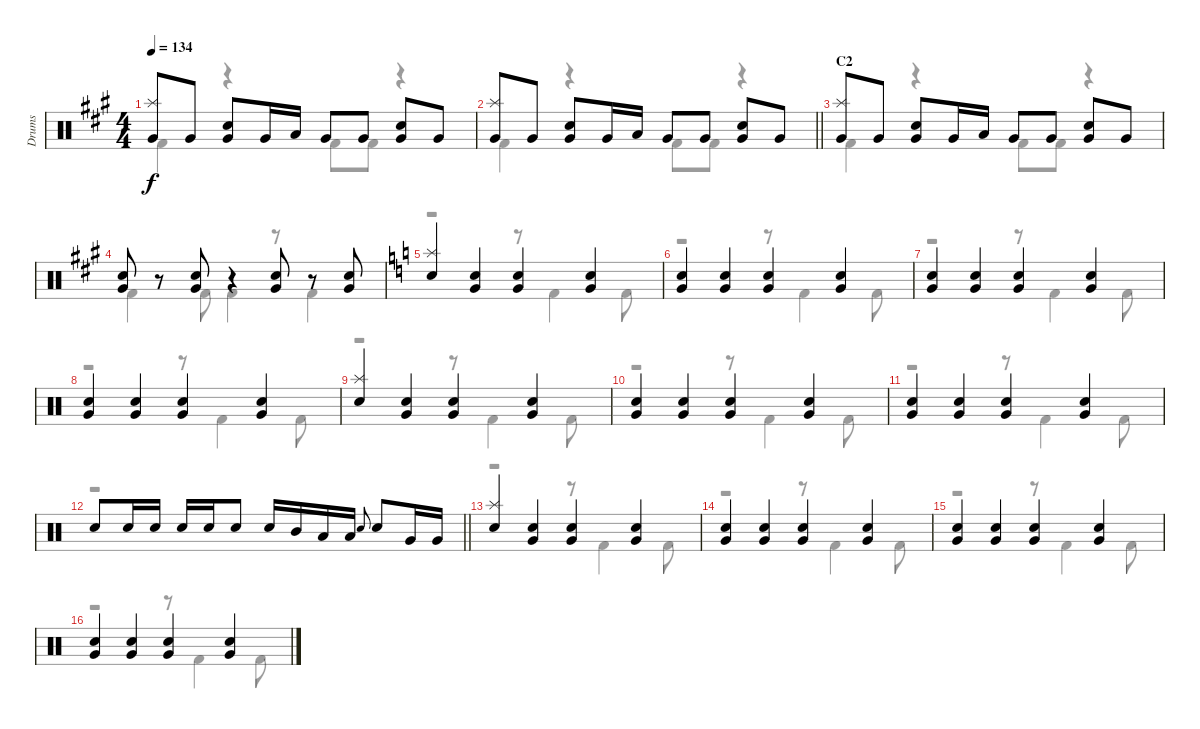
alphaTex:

\track ("Drums" "Drums") {instrument percussion}
\staff {score}
\articulation defaults
\voice
\ts (4 4)
\tempo 134
\clef neutral
\ks a
("Splash (hit)" "Very Low Tom (hit)").8{dy f} "Very Low Tom (hit)".8 ("Very Low Tom (hit)" "Snare (hit) 2").8 "Very Low Tom (hit)".16 "Low Tom (hit)".16 "Very Low Tom (hit)".8 "Very Low Tom (hit)".8 ("Very Low Tom (hit)" "Snare (hit) 2").8 "Very Low Tom (hit)".8 |
\barLineRight lightlight
("Splash (hit)" "Very Low Tom (hit)").8 "Very Low Tom (hit)".8 ("Very Low Tom (hit)" "Snare (hit) 2").8 "Very Low Tom (hit)".16 "Low Tom (hit)".16 "Very Low Tom (hit)".8 "Very Low Tom (hit)".8 ("Very Low Tom (hit)" "Snare (hit) 2").8 "Very Low Tom (hit)".8 |
\section ("" "C2")
("Splash (hit)" "Very Low Tom (hit)").8 "Very Low Tom (hit)".8 ("Very Low Tom (hit)" "Snare (hit) 2").8 "Very Low Tom (hit)".16 "Low Tom (hit)".16 "Very Low Tom (hit)".8 "Very Low Tom (hit)".8 ("Very Low Tom (hit)" "Snare (hit) 2").8 "Very Low Tom (hit)".8 |
("Very Low Tom (hit)" "Snare (hit) 2").8 r.8 ("Very Low Tom (hit)" "Snare (hit) 2").8 r.4 ("Very Low Tom (hit)" "Snare (hit) 2").8 r.8 ("Very Low Tom (hit)" "Snare (hit) 2").8 |
\ks c
("Splash (hit)" "Snare (hit) 2").4 ("Snare (hit) 2" "Very Low Tom (hit)").4 ("Snare (hit) 2" "Very Low Tom (hit)").4 ("Snare (hit) 2" "Very Low Tom (hit)").4 |
("Snare (hit) 2" "Very Low Tom (hit)").4 ("Snare (hit) 2" "Very Low Tom (hit)").4 ("Snare (hit) 2" "Very Low Tom (hit)").4 ("Snare (hit) 2" "Very Low Tom (hit)").4 |
("Snare (hit) 2" "Very Low Tom (hit)").4 ("Snare (hit) 2" "Very Low Tom (hit)").4 ("Snare (hit) 2" "Very Low Tom (hit)").4 ("Snare (hit) 2" "Very Low Tom (hit)").4 |
("Snare (hit) 2" "Very Low Tom (hit)").4 ("Snare (hit) 2" "Very Low Tom (hit)").4 ("Snare (hit) 2" "Very Low Tom (hit)").4 ("Snare (hit) 2" "Very Low Tom (hit)").4 |
("Splash (hit)" "Snare (hit) 2").4 ("Snare (hit) 2" "Very Low Tom (hit)").4 ("Snare (hit) 2" "Very Low Tom (hit)").4 ("Snare (hit) 2" "Very Low Tom (hit)").4 |
("Snare (hit) 2" "Very Low Tom (hit)").4 ("Snare (hit) 2" "Very Low Tom (hit)").4 ("Snare (hit) 2" "Very Low Tom (hit)").4 ("Snare (hit) 2" "Very Low Tom (hit)").4 |
("Snare (hit) 2" "Very Low Tom (hit)").4 ("Snare (hit) 2" "Very Low Tom (hit)").4 ("Snare (hit) 2" "Very Low Tom (hit)").4 ("Snare (hit) 2" "Very Low Tom (hit)").4 |
\barLineRight lightlight "Snare (hit) 2".8 "Snare (hit) 2".16 "Snare (hit) 2".16 "Snare (hit) 2".16 "Snare (hit) 2".16 "Snare (hit) 2".8 "Snare (hit) 2".16 "Mid Tom (hit)".16 "Low Tom (hit)".16 "Low Tom (hit)".16 "Snare (hit) 2".8{gr onbeat} "Snare (hit) 2".8 "Very Low Tom (hit)".16 "Very Low Tom (hit)".16
|
("Splash (hit)" "Snare (hit) 2").4 ("Snare (hit) 2" "Very Low Tom (hit)").4 ("Snare (hit) 2" "Very Low Tom (hit)").4 ("Snare (hit) 2" "Very Low Tom (hit)").4 |
("Snare (hit) 2" "Very Low Tom (hit)").4 ("Snare (hit) 2" "Very Low Tom (hit)").4 ("Snare (hit) 2" "Very Low Tom (hit)").4 ("Snare (hit) 2" "Very Low Tom (hit)").4 |
("Snare (hit) 2" "Very Low Tom (hit)").4 ("Snare (hit) 2" "Very Low Tom (hit)").4 ("Snare (hit) 2" "Very Low Tom (hit)").4 ("Snare (hit) 2" "Very Low Tom (hit)").4 |
("Snare (hit) 2" "Very Low Tom (hit)").4 ("Snare (hit) 2" "Very Low Tom (hit)").4 ("Snare (hit) 2" "Very Low Tom (hit)").4 ("Snare (hit) 2" "Very Low Tom (hit)").4
\voice
\clef neutral
\ottava regular
\simile none
\ks a "Kick (hit) 2".4{dy f}
r.4 "Kick (hit) 2".8 "Kick (hit) 2".8 r.4 |
\barLineRight lightlight "Kick (hit) 2".4
r.4 "Kick (hit) 2".8 "Kick (hit) 2".8 r.4 |
"Kick (hit) 2".4 r.4 "Kick (hit) 2".8 "Kick (hit) 2".8 r.4 |
"Kick (hit) 2".4 "Kick (hit) 2".8 "Kick (hit) 2".4 r.8 "Kick (hit) 2".4 |
\ks c
r.2 r.8 "Kick (hit) 2".4 "Kick (hit) 2".8 |
r.2 r.8 "Kick (hit) 2".4 "Kick (hit) 2".8 |
r.2 r.8 "Kick (hit) 2".4 "Kick (hit) 2".8 |
r.2 r.8 "Kick (hit) 2".4 "Kick (hit) 2".8 |
r.2 r.8 "Kick (hit) 2".4 "Kick (hit) 2".8 |
r.2 r.8 "Kick (hit) 2".4 "Kick (hit) 2".8 |
r.2 r.8 "Kick (hit) 2".4 "Kick (hit) 2".8 |
\barLineRight lightlight
r.1 |
r.2 r.8 "Kick (hit) 2".4 "Kick (hit) 2".8 |
r.2 r.8 "Kick (hit) 2".4 "Kick (hit) 2".8 |
r.2 r.8 "Kick (hit) 2".4 "Kick (hit) 2".8 |
r.2 r.8 "Kick (hit) 2".4 "Kick (hit) 2".8
